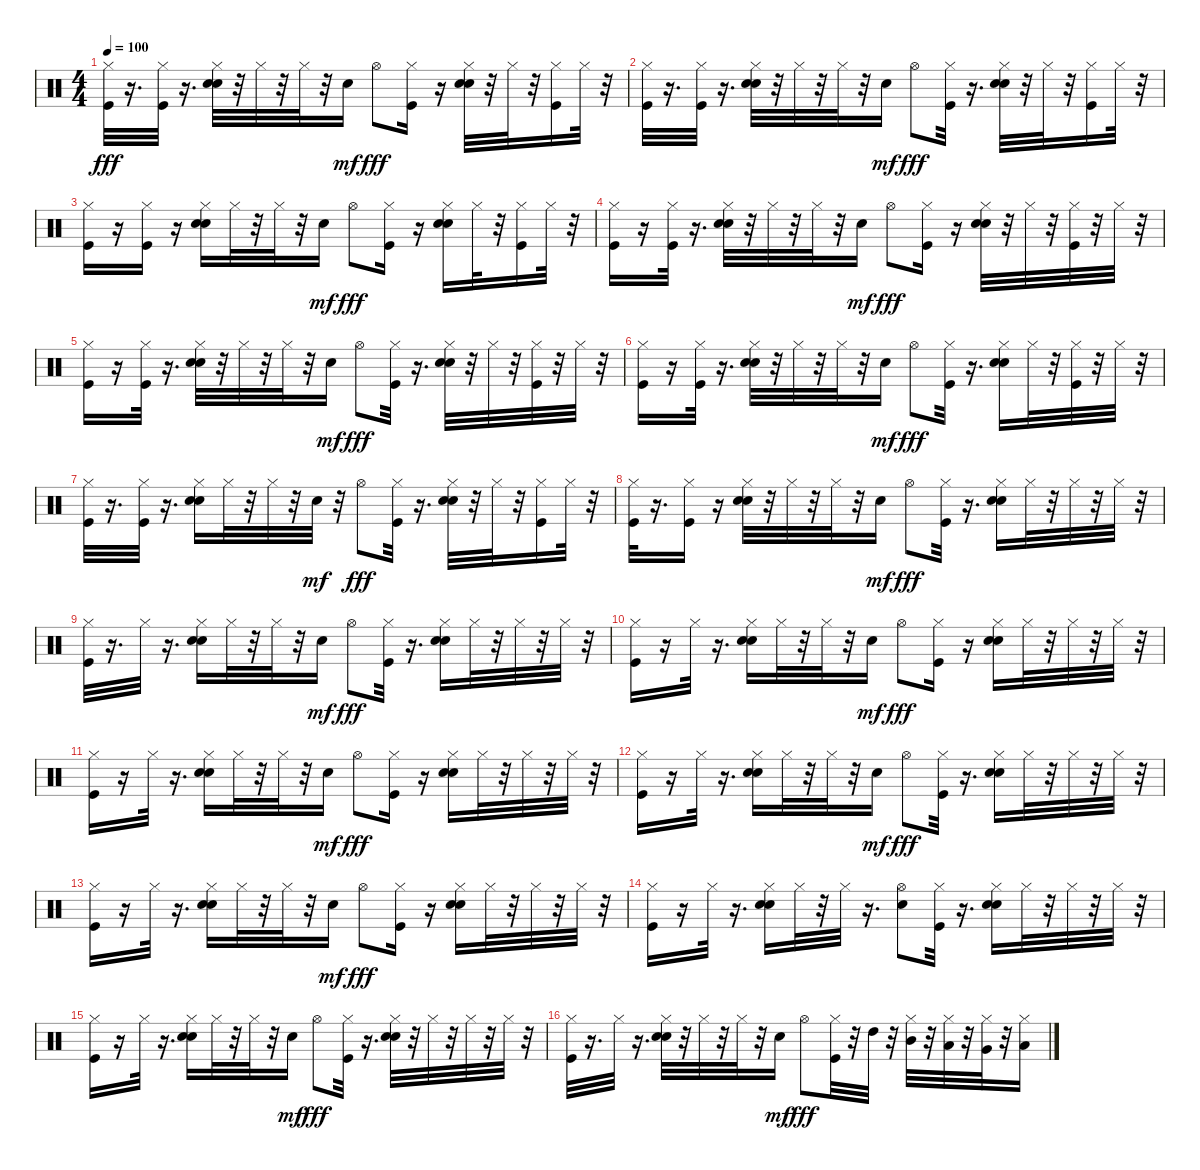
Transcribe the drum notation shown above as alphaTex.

\track "" {instrument percussion}
\staff {score}
\articulation defaults
\ts (4 4)
\tempo 100
\clef neutral
\ks c
("Hi-Hat (closed)" "Kick (hit)").32{dy fff} r.16{d} ("Hi-Hat (closed)" "Kick (hit)").32 r.16{d} ("Hi-Hat (closed)" "Snare (hit) 2" "Hand Clap (hit)").32 r.32 "Hi-Hat (closed)".32 r.32 "Hi-Hat (closed)".32 r.32 "Electric Snare (hit)".16{dy mf} "Hi-Hat (open)".8{dy fff} ("Hi-Hat (closed)" "Kick (hit)").16 r.16 ("Hi-Hat (closed)" "Hand Clap (hit)" "Snare (hit) 2").32 r.32 "Hi-Hat (closed)".32 r.32 ("Hi-Hat (closed)" "Kick (hit)").16 "Hi-Hat (closed)".32 r.32 |
("Hi-Hat (closed)" "Kick (hit)").32 r.16{d} ("Hi-Hat (closed)" "Kick (hit)").32 r.16{d} ("Hi-Hat (closed)" "Snare (hit) 2" "Hand Clap (hit)").32 r.32 "Hi-Hat (closed)".32 r.32 "Hi-Hat (closed)".32 r.32 "Electric Snare (hit)".16{dy mf} "Hi-Hat (open)".8{dy fff} ("Hi-Hat (closed)" "Kick (hit)").32 r.16{d} ("Hi-Hat (closed)" "Hand Clap (hit)" "Snare (hit) 2").32 r.32 "Hi-Hat (closed)".32 r.32 ("Hi-Hat (closed)" "Kick (hit)").16 "Hi-Hat (closed)".32 r.32 |
("Hi-Hat (closed)" "Kick (hit)").16 r.16 ("Hi-Hat (closed)" "Kick (hit)").16 r.16 ("Hi-Hat (closed)" "Snare (hit) 2" "Hand Clap (hit)").16 "Hi-Hat (closed)".32 r.32 "Hi-Hat (closed)".32 r.32 "Electric Snare (hit)".16{dy mf} "Hi-Hat (open)".8{dy fff} ("Hi-Hat (closed)" "Kick (hit)").16 r.16 ("Hi-Hat (closed)" "Snare (hit) 2" "Hand Clap (hit)").16 "Hi-Hat (closed)".32 r.32 ("Hi-Hat (closed)" "Kick (hit)").16 "Hi-Hat (closed)".32 r.32 |
("Hi-Hat (closed)" "Kick (hit)").16 r.16 ("Hi-Hat (closed)" "Kick (hit)").32 r.16{d} ("Hi-Hat (closed)" "Hand Clap (hit)" "Snare (hit) 2").32 r.32 "Hi-Hat (closed)".32 r.32 "Hi-Hat (closed)".32 r.32 "Electric Snare (hit)".16{dy mf} "Hi-Hat (open)".8{dy fff} ("Hi-Hat (closed)" "Kick (hit)").16 r.16 ("Hi-Hat (closed)" "Hand Clap (hit)" "Snare (hit) 2").32 r.32 "Hi-Hat (closed)".32 r.32 ("Hi-Hat (closed)" "Kick (hit)").32 r.32 "Hi-Hat (closed)".32 r.32 |
("Hi-Hat (closed)" "Kick (hit)").16 r.16 ("Hi-Hat (closed)" "Kick (hit)").32 r.16{d} ("Hi-Hat (closed)" "Snare (hit) 2" "Hand Clap (hit)").32 r.32 "Hi-Hat (closed)".32 r.32 "Hi-Hat (closed)".32 r.32 "Electric Snare (hit)".16{dy mf} "Hi-Hat (open)".8{dy fff} ("Hi-Hat (closed)" "Kick (hit)").32 r.16{d} ("Hi-Hat (closed)" "Hand Clap (hit)" "Snare (hit) 2").32 r.32 "Hi-Hat (closed)".32 r.32 ("Hi-Hat (closed)" "Kick (hit)").32 r.32 "Hi-Hat (closed)".32 r.32 |
("Hi-Hat (closed)" "Kick (hit)").16 r.16 ("Hi-Hat (closed)" "Kick (hit)").32 r.16{d} ("Hi-Hat (closed)" "Snare (hit) 2" "Hand Clap (hit)").32 r.32 "Hi-Hat (closed)".32 r.32 "Hi-Hat (closed)".32 r.32 "Electric Snare (hit)".16{dy mf} "Hi-Hat (open)".8{dy fff} ("Hi-Hat (closed)" "Kick (hit)").32 r.16{d} ("Hi-Hat (closed)" "Hand Clap (hit)" "Snare (hit) 2").16 "Hi-Hat (closed)".32 r.32 ("Hi-Hat (closed)" "Kick (hit)").32 r.32 "Hi-Hat (closed)".32 r.32 |
("Hi-Hat (closed)" "Kick (hit)").32 r.16{d} ("Hi-Hat (closed)" "Kick (hit)").32 r.16{d} ("Hi-Hat (closed)" "Hand Clap (hit)" "Snare (hit) 2").16 "Hi-Hat (closed)".32 r.32 "Hi-Hat (closed)".32 r.32 "Electric Snare (hit)".32{dy mf} r.32 "Hi-Hat (open)".8{dy fff} ("Hi-Hat (closed)" "Kick (hit)").32 r.16{d} ("Hi-Hat (closed)" "Hand Clap (hit)" "Snare (hit) 2").32 r.32 "Hi-Hat (closed)".32 r.32 ("Hi-Hat (closed)" "Kick (hit)").16 "Hi-Hat (closed)".32 r.32 |
("Hi-Hat (closed)" "Kick (hit)").32 r.16{d} ("Hi-Hat (closed)" "Kick (hit)").16 r.16 ("Hi-Hat (closed)" "Snare (hit) 2" "Hand Clap (hit)").32 r.32 "Hi-Hat (closed)".32 r.32 "Hi-Hat (closed)".32 r.32 "Electric Snare (hit)".16{dy mf} "Hi-Hat (open)".8{dy fff} ("Hi-Hat (closed)" "Kick (hit)").32 r.16{d} ("Hi-Hat (closed)" "Hand Clap (hit)" "Snare (hit) 2").16 "Hi-Hat (closed)".32 r.32 "Hi-Hat (closed)".32 r.32 "Hi-Hat (closed)".32 r.32 |
("Hi-Hat (closed)" "Kick (hit)").32 r.16{d} "Hi-Hat (closed)".32 r.16{d} ("Hi-Hat (closed)" "Snare (hit) 2" "Hand Clap (hit)").16 "Hi-Hat (closed)".32 r.32 "Hi-Hat (closed)".32 r.32 "Electric Snare (hit)".16{dy mf} "Hi-Hat (open)".8{dy fff} ("Hi-Hat (closed)" "Kick (hit)").32 r.16{d} ("Hi-Hat (closed)" "Hand Clap (hit)" "Snare (hit) 2").16 "Hi-Hat (closed)".32 r.32 "Hi-Hat (closed)".32 r.32 "Hi-Hat (closed)".32 r.32 |
("Hi-Hat (closed)" "Kick (hit)").16 r.16 "Hi-Hat (closed)".32 r.16{d} ("Hi-Hat (closed)" "Hand Clap (hit)" "Snare (hit) 2").16 "Hi-Hat (closed)".32 r.32 "Hi-Hat (closed)".32 r.32 "Electric Snare (hit)".16{dy mf} "Hi-Hat (open)".8{dy fff} ("Hi-Hat (closed)" "Kick (hit)").16 r.16 ("Hi-Hat (closed)" "Hand Clap (hit)" "Snare (hit) 2").16 "Hi-Hat (closed)".32 r.32 "Hi-Hat (closed)".32 r.32 "Hi-Hat (closed)".32 r.32 |
("Hi-Hat (closed)" "Kick (hit)").16 r.16 "Hi-Hat (closed)".32 r.16{d} ("Hi-Hat (closed)" "Hand Clap (hit)" "Snare (hit) 2").16 "Hi-Hat (closed)".32 r.32 "Hi-Hat (closed)".32 r.32 "Electric Snare (hit)".16{dy mf} "Hi-Hat (open)".8{dy fff} ("Hi-Hat (closed)" "Kick (hit)").16 r.16 ("Hi-Hat (closed)" "Hand Clap (hit)" "Snare (hit) 2").16 "Hi-Hat (closed)".32 r.32 "Hi-Hat (closed)".32 r.32 "Hi-Hat (closed)".32 r.32 |
("Hi-Hat (closed)" "Kick (hit)").16 r.16 "Hi-Hat (closed)".32 r.16{d} ("Hi-Hat (closed)" "Hand Clap (hit)" "Snare (hit) 2").16 "Hi-Hat (closed)".32 r.32 "Hi-Hat (closed)".32 r.32 "Electric Snare (hit)".16{dy mf} "Hi-Hat (open)".8{dy fff} ("Hi-Hat (closed)" "Kick (hit)").32 r.16{d} ("Hi-Hat (closed)" "Hand Clap (hit)" "Snare (hit) 2").16 "Hi-Hat (closed)".32 r.32 "Hi-Hat (closed)".32 r.32 "Hi-Hat (closed)".32 r.32 |
("Hi-Hat (closed)" "Kick (hit)").16 r.16 "Hi-Hat (closed)".32 r.16{d} ("Hi-Hat (closed)" "Hand Clap (hit)" "Snare (hit) 2").16 "Hi-Hat (closed)".32 r.32 "Hi-Hat (closed)".32 r.32 "Electric Snare (hit)".16{dy mf} "Hi-Hat (open)".8{dy fff} ("Hi-Hat (closed)" "Kick (hit)").16 r.16 ("Hi-Hat (closed)" "Hand Clap (hit)" "Snare (hit) 2").16 "Hi-Hat (closed)".32 r.32 "Hi-Hat (closed)".32 r.32 "Hi-Hat (closed)".32 r.32 |
("Hi-Hat (closed)" "Kick (hit)").16 r.16 "Hi-Hat (closed)".32 r.16{d} ("Hi-Hat (closed)" "Hand Clap (hit)" "Snare (hit) 2").16 "Hi-Hat (closed)".32 r.32 "Hi-Hat (closed)".32 r.16{d} ("Electric Snare (hit)" "Hi-Hat (open)").8 ("Hi-Hat (closed)" "Kick (hit)").32 r.16{d} ("Hi-Hat (closed)" "Hand Clap (hit)" "Snare (hit) 2").16 "Hi-Hat (closed)".32 r.32 "Hi-Hat (closed)".32 r.32 "Hi-Hat (closed)".32 r.32 |
("Hi-Hat (closed)" "Kick (hit)").16 r.16 "Hi-Hat (closed)".32 r.16{d} ("Hi-Hat (closed)" "Hand Clap (hit)" "Snare (hit) 2").16 "Hi-Hat (closed)".32 r.32 "Hi-Hat (closed)".32 r.32 "Electric Snare (hit)".16{dy mf} "Hi-Hat (open)".8{dy fff} ("Hi-Hat (closed)" "Kick (hit)").32 r.16{d} ("Hi-Hat (closed)" "Hand Clap (hit)" "Snare (hit) 2").32 r.32 "Hi-Hat (closed)".32 r.32 "Hi-Hat (closed)".32 r.32 "Hi-Hat (closed)".32 r.32 |
("Hi-Hat (closed)" "Kick (hit)").32 r.16{d} "Hi-Hat (closed)".32 r.16{d} ("Hi-Hat (closed)" "Hand Clap (hit)" "Snare (hit) 2").32 r.32 "Hi-Hat (closed)".32 r.32 "Hi-Hat (closed)".32 r.32 "Electric Snare (hit)".16{dy mf} "Hi-Hat (open)".8{dy fff} ("Hi-Hat (closed)" "Kick (hit)").32 r.32 "High Tom (hit)".32 r.32 ("Hi-Hat (closed)" "Mid Tom (hit)").32 r.32 ("Hi-Hat (closed)" "Low Tom (hit)").32 r.32 ("Hi-Hat (closed)" "Very Low Tom (hit)").32 r.32 ("Hi-Hat (closed)" "Low Floor Tom (hit)").16
